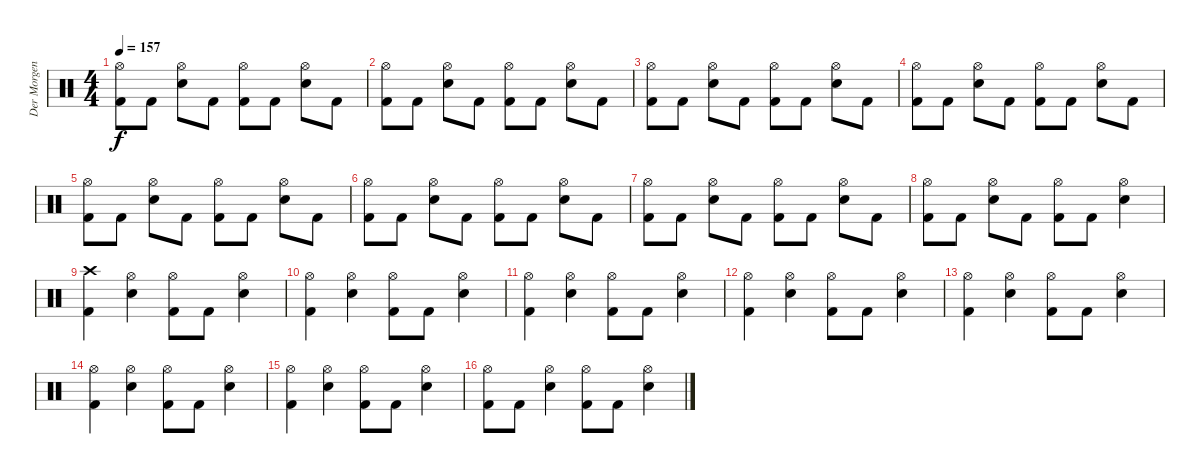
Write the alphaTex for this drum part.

\track ("Der Morgenstern" "Der Morgen") {instrument percussion}
\staff {score}
\articulation defaults
\ts (4 4)
\tempo 157
\clef neutral
\ks c
("Hi-Hat (open)" "Kick (hit) 2").8{dy f} "Kick (hit) 2".8 ("Hi-Hat (open)" "Electric Snare (hit)").8 "Kick (hit) 2".8 ("Hi-Hat (open)" "Kick (hit) 2").8 "Kick (hit) 2".8 ("Hi-Hat (open)" "Electric Snare (hit)").8 "Kick (hit) 2".8 |
("Hi-Hat (open)" "Kick (hit) 2").8 "Kick (hit) 2".8 ("Hi-Hat (open)" "Electric Snare (hit)").8 "Kick (hit) 2".8 ("Hi-Hat (open)" "Kick (hit) 2").8 "Kick (hit) 2".8 ("Hi-Hat (open)" "Electric Snare (hit)").8 "Kick (hit) 2".8 |
("Hi-Hat (open)" "Kick (hit) 2").8 "Kick (hit) 2".8 ("Hi-Hat (open)" "Electric Snare (hit)").8 "Kick (hit) 2".8 ("Hi-Hat (open)" "Kick (hit) 2").8 "Kick (hit) 2".8 ("Hi-Hat (open)" "Electric Snare (hit)").8 "Kick (hit) 2".8 |
("Hi-Hat (open)" "Kick (hit) 2").8 "Kick (hit) 2".8 ("Hi-Hat (open)" "Electric Snare (hit)").8 "Kick (hit) 2".8 ("Hi-Hat (open)" "Kick (hit) 2").8 "Kick (hit) 2".8 ("Hi-Hat (open)" "Electric Snare (hit)").8 "Kick (hit) 2".8 |
("Hi-Hat (open)" "Kick (hit) 2").8 "Kick (hit) 2".8 ("Hi-Hat (open)" "Electric Snare (hit)").8 "Kick (hit) 2".8 ("Hi-Hat (open)" "Kick (hit) 2").8 "Kick (hit) 2".8 ("Hi-Hat (open)" "Electric Snare (hit)").8 "Kick (hit) 2".8 |
("Hi-Hat (open)" "Kick (hit) 2").8 "Kick (hit) 2".8 ("Hi-Hat (open)" "Electric Snare (hit)").8 "Kick (hit) 2".8 ("Hi-Hat (open)" "Kick (hit) 2").8 "Kick (hit) 2".8 ("Hi-Hat (open)" "Electric Snare (hit)").8 "Kick (hit) 2".8 |
("Hi-Hat (open)" "Kick (hit) 2").8 "Kick (hit) 2".8 ("Hi-Hat (open)" "Electric Snare (hit)").8 "Kick (hit) 2".8 ("Hi-Hat (open)" "Kick (hit) 2").8 "Kick (hit) 2".8 ("Hi-Hat (open)" "Electric Snare (hit)").8 "Kick (hit) 2".8 |
("Hi-Hat (open)" "Kick (hit) 2").8 "Kick (hit) 2".8 ("Hi-Hat (open)" "Electric Snare (hit)").8 "Kick (hit) 2".8 ("Hi-Hat (open)" "Kick (hit) 2").8 "Kick (hit) 2".8 ("Hi-Hat (open)" "Electric Snare (hit)").4 |
("Crash high (hit)" "Kick (hit) 2").4 ("Hi-Hat (open)" "Electric Snare (hit)").4 ("Hi-Hat (open)" "Kick (hit) 2").8 "Kick (hit) 2".8 ("Hi-Hat (open)" "Electric Snare (hit)").4 |
("Hi-Hat (open)" "Kick (hit) 2").4 ("Hi-Hat (open)" "Electric Snare (hit)").4 ("Hi-Hat (open)" "Kick (hit) 2").8 "Kick (hit) 2".8 ("Hi-Hat (open)" "Electric Snare (hit)").4 |
("Hi-Hat (open)" "Kick (hit) 2").4 ("Hi-Hat (open)" "Electric Snare (hit)").4 ("Hi-Hat (open)" "Kick (hit) 2").8 "Kick (hit) 2".8 ("Hi-Hat (open)" "Electric Snare (hit)").4 |
("Hi-Hat (open)" "Kick (hit) 2").4 ("Hi-Hat (open)" "Electric Snare (hit)").4 ("Hi-Hat (open)" "Kick (hit) 2").8 "Kick (hit) 2".8 ("Hi-Hat (open)" "Electric Snare (hit)").4 |
("Hi-Hat (open)" "Kick (hit) 2").4 ("Hi-Hat (open)" "Electric Snare (hit)").4 ("Hi-Hat (open)" "Kick (hit) 2").8 "Kick (hit) 2".8 ("Hi-Hat (open)" "Electric Snare (hit)").4 |
("Hi-Hat (open)" "Kick (hit) 2").4 ("Hi-Hat (open)" "Electric Snare (hit)").4 ("Hi-Hat (open)" "Kick (hit) 2").8 "Kick (hit) 2".8 ("Hi-Hat (open)" "Electric Snare (hit)").4 |
("Hi-Hat (open)" "Kick (hit) 2").4 ("Hi-Hat (open)" "Electric Snare (hit)").4 ("Hi-Hat (open)" "Kick (hit) 2").8 "Kick (hit) 2".8 ("Hi-Hat (open)" "Electric Snare (hit)").4 |
("Hi-Hat (open)" "Kick (hit) 2").8 "Kick (hit) 2".8 ("Hi-Hat (open)" "Electric Snare (hit)").4 ("Hi-Hat (open)" "Kick (hit) 2").8 "Kick (hit) 2".8 ("Hi-Hat (open)" "Electric Snare (hit)").4
